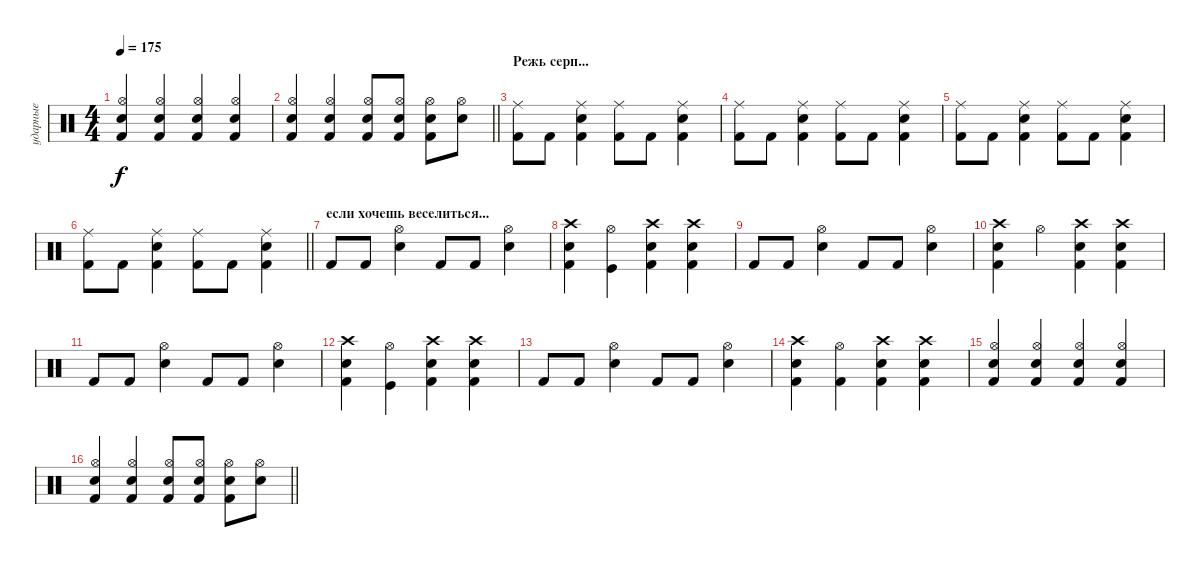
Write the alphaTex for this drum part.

\track ("ударные" "ударные") {instrument percussion}
\staff {score}
\articulation defaults
\ts (4 4)
\tempo 175
\clef neutral
\ks c
("Electric Snare (hit)" "Hi-Hat (open)" "Kick (hit) 2").4{dy f} ("Electric Snare (hit)" "Hi-Hat (open)" "Kick (hit) 2").4 ("Electric Snare (hit)" "Hi-Hat (open)" "Kick (hit) 2").4 ("Electric Snare (hit)" "Hi-Hat (open)" "Kick (hit) 2").4 |
\barLineRight lightlight
("Electric Snare (hit)" "Hi-Hat (open)" "Kick (hit) 2").4 ("Electric Snare (hit)" "Hi-Hat (open)" "Kick (hit) 2").4 ("Electric Snare (hit)" "Hi-Hat (open)" "Kick (hit) 2").8 ("Electric Snare (hit)" "Hi-Hat (open)" "Kick (hit) 2").8 ("Hi-Hat (open)" "Kick (hit) 2" "Electric Snare (hit)").8 ("Electric Snare (hit)" "Hi-Hat (open)").8 |
\section ("" "Режь серп...")
("Kick (hit) 2" "Ride (middle)").8 "Kick (hit) 2".8 ("Electric Snare (hit)" "Ride (middle)" "Kick (hit) 2").4 ("Kick (hit) 2" "Ride (middle)").8 "Kick (hit) 2".8 ("Electric Snare (hit)" "Ride (middle)" "Kick (hit) 2").4 |
("Kick (hit) 2" "Ride (middle)").8 "Kick (hit) 2".8 ("Electric Snare (hit)" "Ride (middle)" "Kick (hit) 2").4 ("Kick (hit) 2" "Ride (middle)").8 "Kick (hit) 2".8 ("Electric Snare (hit)" "Ride (middle)" "Kick (hit) 2").4 |
("Kick (hit) 2" "Ride (middle)").8 "Kick (hit) 2".8 ("Electric Snare (hit)" "Ride (middle)" "Kick (hit) 2").4 ("Kick (hit) 2" "Ride (middle)").8 "Kick (hit) 2".8 ("Electric Snare (hit)" "Ride (middle)" "Kick (hit) 2").4 |
\barLineRight lightlight
("Kick (hit) 2" "Ride (middle)").8 "Kick (hit) 2".8 ("Electric Snare (hit)" "Ride (middle)" "Kick (hit) 2").4 ("Kick (hit) 2" "Ride (middle)").8 "Kick (hit) 2".8 ("Electric Snare (hit)" "Ride (middle)" "Kick (hit) 2").4 |
\section ("" "если хочешь веселиться...")
"Kick (hit) 2".8 "Kick (hit) 2".8 ("Electric Snare (hit)" "Hi-Hat (open)").4 "Kick (hit) 2".8 "Kick (hit) 2".8 ("Electric Snare (hit)" "Hi-Hat (open)").4 |
("Electric Snare (hit)" "Crash high (hit)" "Kick (hit) 2").4 ("Hi-Hat (open)" "Kick (hit)").4 ("Electric Snare (hit)" "Crash high (hit)" "Kick (hit) 2").4 ("Electric Snare (hit)" "Crash high (hit)" "Kick (hit) 2").4 |
"Kick (hit) 2".8 "Kick (hit) 2".8 ("Electric Snare (hit)" "Hi-Hat (open)").4 "Kick (hit) 2".8 "Kick (hit) 2".8 ("Electric Snare (hit)" "Hi-Hat (open)").4 |
("Electric Snare (hit)" "Crash high (hit)" "Kick (hit) 2").4 "Hi-Hat (open)".4 ("Electric Snare (hit)" "Crash high (hit)" "Kick (hit) 2").4 ("Electric Snare (hit)" "Crash high (hit)" "Kick (hit) 2").4 |
"Kick (hit) 2".8 "Kick (hit) 2".8 ("Electric Snare (hit)" "Hi-Hat (open)").4 "Kick (hit) 2".8 "Kick (hit) 2".8 ("Electric Snare (hit)" "Hi-Hat (open)").4 |
("Electric Snare (hit)" "Crash high (hit)" "Kick (hit) 2").4 ("Hi-Hat (open)" "Kick (hit)").4 ("Electric Snare (hit)" "Crash high (hit)" "Kick (hit) 2").4 ("Electric Snare (hit)" "Crash high (hit)" "Kick (hit) 2").4 |
"Kick (hit) 2".8 "Kick (hit) 2".8 ("Electric Snare (hit)" "Hi-Hat (open)").4 "Kick (hit) 2".8 "Kick (hit) 2".8 ("Electric Snare (hit)" "Hi-Hat (open)").4 |
("Electric Snare (hit)" "Crash high (hit)" "Kick (hit) 2").4 ("Hi-Hat (open)" "Kick (hit) 2").4 ("Electric Snare (hit)" "Crash high (hit)" "Kick (hit) 2").4 ("Electric Snare (hit)" "Crash high (hit)" "Kick (hit) 2").4 |
("Electric Snare (hit)" "Hi-Hat (open)" "Kick (hit) 2").4 ("Electric Snare (hit)" "Hi-Hat (open)" "Kick (hit) 2").4 ("Electric Snare (hit)" "Hi-Hat (open)" "Kick (hit) 2").4 ("Electric Snare (hit)" "Hi-Hat (open)" "Kick (hit) 2").4 |
\barLineRight lightlight
("Electric Snare (hit)" "Hi-Hat (open)" "Kick (hit) 2").4 ("Electric Snare (hit)" "Hi-Hat (open)" "Kick (hit) 2").4 ("Electric Snare (hit)" "Hi-Hat (open)" "Kick (hit) 2").8 ("Electric Snare (hit)" "Hi-Hat (open)" "Kick (hit) 2").8 ("Hi-Hat (open)" "Kick (hit) 2" "Electric Snare (hit)").8 ("Electric Snare (hit)" "Hi-Hat (open)").8
